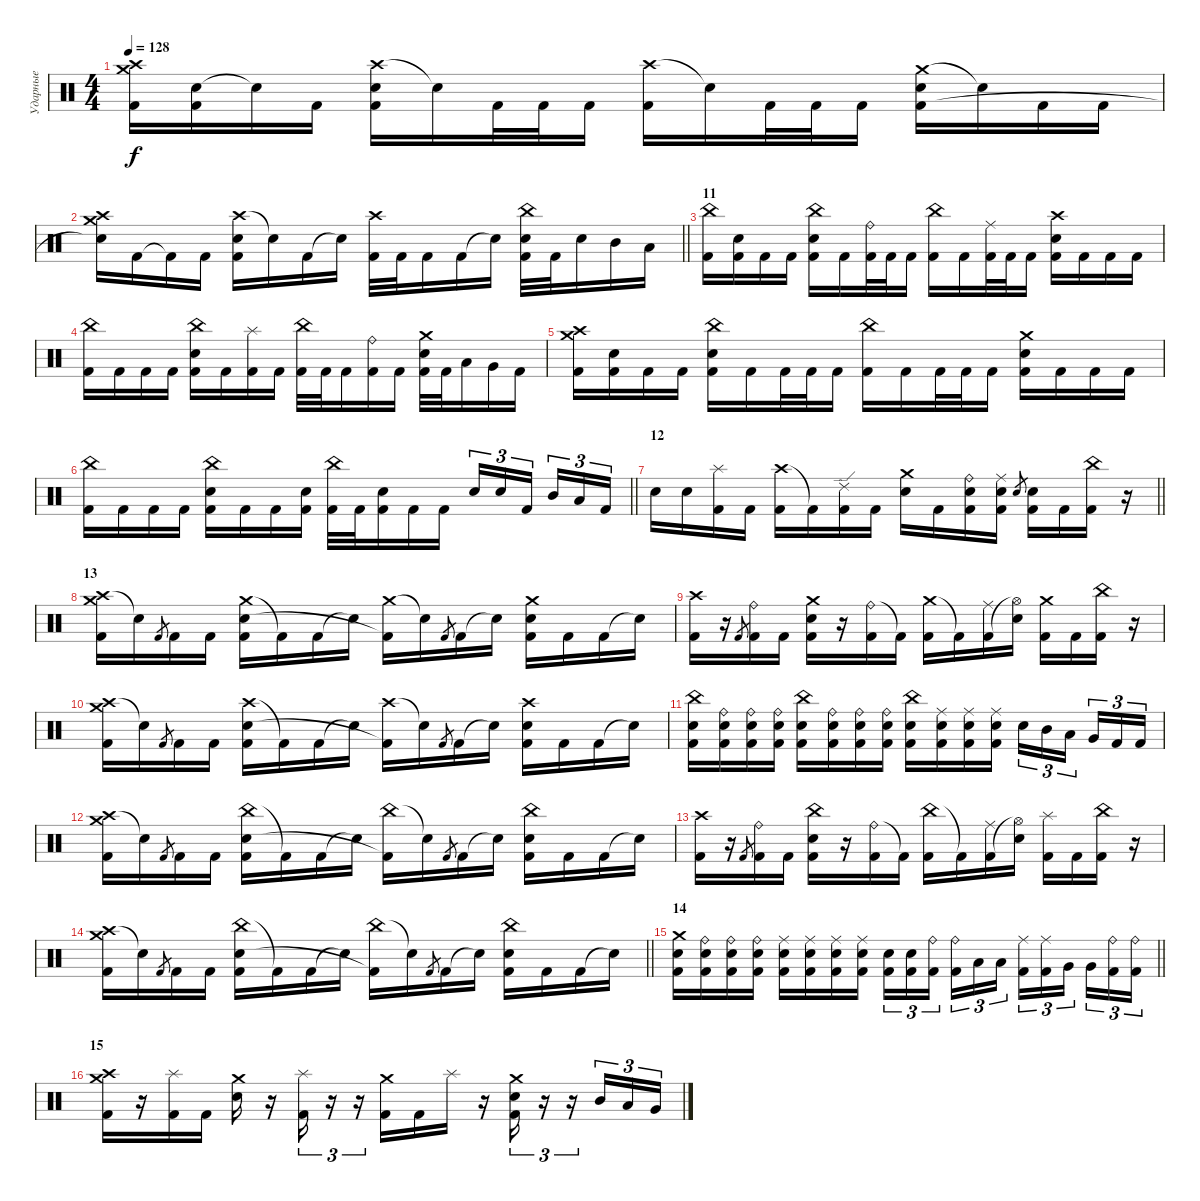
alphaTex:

\track ("Ударные" "Ударные") {instrument percussion}
\staff {score}
\articulation defaults
\ts (4 4)
\tempo 128
\clef neutral
\ks c
("Crash high (hit)" "Crash medium (hit)" "Kick (hit) 2").16{dy f} ("Electric Snare (hit)" "Kick (hit) 2").16 "Snare (hit)"{t}.16 "Kick (hit) 2".16 ("Crash high (hit)" "Electric Snare (hit)" "Kick (hit) 2").16 "Snare (hit)"{t}.16 "Kick (hit) 2".32 "Kick (hit) 2".32 "Kick (hit) 2".16 ("Crash high (hit)" "Kick (hit) 2").16 "Snare (hit)"{t}.16 "Kick (hit) 2".32 "Kick (hit) 2".32 "Kick (hit) 2".16 ("Crash medium (hit)" "Electric Snare (hit)" "Kick (hit) 2").16 "Snare (hit)"{t}.16 "Kick (hit) 2".16 "Kick (hit) 2".16 |
\barLineRight lightlight
("Crash high (hit)" "Crash medium (hit)" "Snare (hit)"{t}).16 "Kick (hit) 2".16 "Kick (hit) 2"{t}.16 "Kick (hit) 2".16 ("Crash high (hit)" "Electric Snare (hit)" "Kick (hit) 2").16 "Snare (hit)"{t}.16 "Kick (hit) 2".16 "Snare (hit)"{t}.16 ("Crash high (hit)" "Kick (hit) 2").32 "Kick (hit) 2".32 "Kick (hit) 2".16 "Kick (hit) 2".16 "Snare (hit)"{t}.16 ("China (hit)" "Electric Snare (hit)" "Kick (hit) 2").32 "Kick (hit) 2".32 "Electric Snare (hit)".16 "Mid Tom (hit)".16 "Low Tom (hit)".16 |
\section ("" "11")
("China (hit)" "Kick (hit) 2").16 ("Electric Snare (hit)" "Kick (hit) 2").16 "Kick (hit) 2".16 "Kick (hit) 2".16 ("China (hit)" "Electric Snare (hit)" "Kick (hit) 2").16 "Kick (hit) 2".16 ("Ride (bell)" "Kick (hit) 2").32 "Kick (hit) 2".32 "Kick (hit) 2".16 ("China (hit)" "Kick (hit) 2").16 "Kick (hit) 2".16 ("Ride (middle)" "Kick (hit) 2").32 "Kick (hit) 2".32 "Kick (hit) 2".16 ("Crash high (hit)" "Electric Snare (hit)" "Kick (hit) 2").16 "Kick (hit) 2".16 "Kick (hit) 2".16 "Kick (hit) 2".16 |
("China (hit)" "Kick (hit) 2").16 "Kick (hit) 2".16 "Kick (hit) 2".16 "Kick (hit) 2".16 ("China (hit)" "Electric Snare (hit)" "Kick (hit) 2").16 "Kick (hit) 2".16 ("Splash (hit)" "Kick (hit) 2").16 "Kick (hit) 2".16 ("China (hit)" "Kick (hit) 2").32 "Kick (hit) 2".32 "Kick (hit) 2".16 ("Ride (bell)" "Kick (hit) 2").16 "Kick (hit) 2".16 ("Crash medium (hit)" "Electric Snare (hit)" "Kick (hit) 2").32 "Kick (hit) 2".32 "Low Tom (hit)".16 "Very Low Tom (hit)".16 "Kick (hit) 2".16 |
("Crash high (hit)" "Crash medium (hit)" "Kick (hit) 2").16 ("Electric Snare (hit)" "Kick (hit) 2").16 "Kick (hit) 2".16 "Kick (hit) 2".16 ("China (hit)" "Electric Snare (hit)" "Kick (hit) 2").16 "Kick (hit) 2".16 "Kick (hit) 2".32 "Kick (hit) 2".32 "Kick (hit) 2".16 ("China (hit)" "Kick (hit) 2").16 "Kick (hit) 2".16 "Kick (hit) 2".32 "Kick (hit) 2".32 "Kick (hit) 2".16 ("Crash medium (hit)" "Electric Snare (hit)" "Kick (hit) 2").16 "Kick (hit) 2".16 "Kick (hit) 2".16 "Kick (hit) 2".16 |
\barLineRight lightlight
("China (hit)" "Kick (hit) 2").16 "Kick (hit) 2".16 "Kick (hit) 2".16 "Kick (hit) 2".16 ("China (hit)" "Electric Snare (hit)" "Kick (hit) 2").16 "Kick (hit) 2".16 "Kick (hit) 2".16 ("Electric Snare (hit)" "Kick (hit) 2").16 ("China (hit)" "Kick (hit) 2").32 "Kick (hit) 2".32 ("Electric Snare (hit)" "Kick (hit) 2").16 "Kick (hit) 2".16 "Kick (hit) 2".16 "Electric Snare (hit)".16{tu (3 2)} "Electric Snare (hit)".16{tu (3 2)} "Kick (hit) 2".16{tu (3 2) beam splitsecondary} "Mid Tom (hit)".16{tu (3 2)} "Low Tom (hit)".16{tu (3 2)} "Kick (hit) 2".16{tu (3 2)} |
\section ("" "12")
\barLineRight lightlight "Electric Snare (hit)".16 "Electric Snare (hit)".16
("Splash (hit)" "Kick (hit) 2").16 "Kick (hit) 2".16 ("Crash high (hit)" "Kick (hit) 2").16 "Kick (hit) 2"{t}.16 ("Ride (edge) 2" "Kick (hit) 2").16 "Kick (hit) 2".16 ("Crash medium (hit)" "Electric Snare (hit)").16 "Kick (hit) 2".16 ("Ride (bell)" "Electric Snare (hit)" "Kick (hit) 2").16 ("Ride (middle)" "Electric Snare (hit)" "Kick (hit) 2").16 "Electric Snare (hit)".8{gr} ("Electric Snare (hit)" "Kick (hit) 2").16 "Kick (hit) 2".16 ("China (hit)" "Kick (hit) 2").16 r.16 |
\section ("" "13")
("Crash high (hit)" "Crash medium (hit)" "Kick (hit) 2").16 "Snare (hit)"{t}.16 "Kick (hit) 2".8{gr} "Kick (hit) 2".16 "Kick (hit) 2".16 ("Crash medium (hit)" "Electric Snare (hit)" "Kick (hit) 2").16 "Kick (hit) 2"{t}.16 "Kick (hit) 2".16 "Snare (hit)"{t}.16 ("Crash medium (hit)" "Kick (hit) 2"{t}).16 "Snare (hit)"{t}.16 "Kick (hit) 2".8{gr} "Kick (hit) 2".16 "Snare (hit)"{t}.16 ("Crash medium (hit)" "Electric Snare (hit)" "Kick (hit) 2").16 "Kick (hit) 2".16 "Kick (hit) 2".16 "Snare (hit)"{t}.16 |
("Crash high (hit)" "Kick (hit) 2").16 r.16 "Kick (hit) 2".8{gr} ("Ride (bell)" "Kick (hit) 2").16 "Kick (hit) 2".16 ("Crash medium (hit)" "Electric Snare (hit)" "Kick (hit) 2").16 r.16 ("Ride (bell)" "Kick (hit) 2").16 "Kick (hit) 2"{t}.16 ("Crash medium (hit)" "Kick (hit) 2").16 "Kick (hit) 2"{t}.16 ("Ride (middle)" "Kick (hit) 2").16 ("Electric Snare (hit)" "Hi-Hat (open)"{t}).16 ("Crash medium (hit)" "Kick (hit) 2").16 "Kick (hit) 2".16 ("China (hit)" "Kick (hit) 2").16 r.16 |
("Crash high (hit)" "Crash medium (hit)" "Kick (hit) 2").16 "Snare (hit)"{t}.16 "Kick (hit) 2".8{gr} "Kick (hit) 2".16 "Kick (hit) 2".16 ("Crash high (hit)" "Electric Snare (hit)" "Kick (hit) 2").16 "Kick (hit) 2"{t}.16 "Kick (hit) 2".16 "Snare (hit)"{t}.16 ("Crash high (hit)" "Kick (hit) 2"{t}).16 "Snare (hit)"{t}.16 "Kick (hit) 2".8{gr} "Kick (hit) 2".16 "Snare (hit)"{t}.16 ("Crash high (hit)" "Electric Snare (hit)" "Kick (hit) 2").16 "Kick (hit) 2".16 "Kick (hit) 2".16 "Snare (hit)"{t}.16 |
("China (hit)" "Electric Snare (hit)" "Kick (hit) 2").16 ("Ride (bell)" "Electric Snare (hit)" "Kick (hit) 2").16 ("Ride (bell)" "Electric Snare (hit)" "Kick (hit) 2").16 ("Ride (bell)" "Electric Snare (hit)" "Kick (hit) 2").16 ("China (hit)" "Electric Snare (hit)" "Kick (hit) 2").16 ("Ride (bell)" "Electric Snare (hit)" "Kick (hit) 2").16 ("Ride (bell)" "Electric Snare (hit)" "Kick (hit) 2").16 ("Ride (bell)" "Electric Snare (hit)" "Kick (hit) 2").16 ("China (hit)" "Electric Snare (hit)" "Kick (hit) 2").16 ("Ride (middle)" "Electric Snare (hit)" "Kick (hit) 2").16 ("Ride (middle)" "Electric Snare (hit)" "Kick (hit) 2").16 ("Ride (middle)" "Electric Snare (hit)" "Kick (hit) 2").16 "Electric Snare (hit)".16{tu (3 2)} "Mid Tom (hit)".16{tu (3 2)} "Low Tom (hit)".16{tu (3 2) beam splitsecondary} "Very Low Tom (hit)".16{tu (3 2)} "Kick (hit) 2".16{tu (3 2)} "Kick (hit) 2".16{tu (3 2)} |
("Crash high (hit)" "Crash medium (hit)" "Kick (hit) 2").16 "Snare (hit)"{t}.16 "Kick (hit) 2".8{gr} "Kick (hit) 2".16 "Kick (hit) 2".16 ("China (hit)" "Electric Snare (hit)" "Kick (hit) 2").16 "Kick (hit) 2"{t}.16 "Kick (hit) 2".16 "Snare (hit)"{t}.16 ("China (hit)" "Kick (hit) 2"{t}).16 "Snare (hit)"{t}.16 "Kick (hit) 2".8{gr} "Kick (hit) 2".16 "Snare (hit)"{t}.16 ("China (hit)" "Electric Snare (hit)" "Kick (hit) 2").16 "Kick (hit) 2".16 "Kick (hit) 2".16 "Snare (hit)"{t}.16 |
("Crash high (hit)" "Kick (hit) 2").16 r.16 "Kick (hit) 2".8{gr} ("Ride (bell)" "Kick (hit) 2").16 "Kick (hit) 2".16 ("China (hit)" "Electric Snare (hit)" "Kick (hit) 2").16 r.16 ("Ride (bell)" "Kick (hit) 2").16 "Kick (hit) 2"{t}.16 ("China (hit)" "Kick (hit) 2").16 "Kick (hit) 2"{t}.16 ("Ride (middle)" "Kick (hit) 2").16 ("Electric Snare (hit)" "Hi-Hat (open)"{t}).16 ("Splash (hit)" "Kick (hit) 2").16 "Kick (hit) 2".16 ("China (hit)" "Kick (hit) 2").16 r.16 |
\barLineRight lightlight
("Crash high (hit)" "Crash medium (hit)" "Kick (hit) 2").16 "Snare (hit)"{t}.16 "Kick (hit) 2".8{gr} "Kick (hit) 2".16 "Kick (hit) 2".16 ("China (hit)" "Electric Snare (hit)" "Kick (hit) 2").16 "Kick (hit) 2"{t}.16 "Kick (hit) 2".16 "Snare (hit)"{t}.16 ("China (hit)" "Kick (hit) 2"{t}).16 "Snare (hit)"{t}.16 "Kick (hit) 2".8{gr} "Kick (hit) 2".16 "Snare (hit)"{t}.16 ("China (hit)" "Electric Snare (hit)" "Kick (hit) 2").16 "Kick (hit) 2".16 "Kick (hit) 2".16 "Snare (hit)"{t}.16 |
\section ("" "14")
\barLineRight lightlight
("Crash medium (hit)" "Electric Snare (hit)" "Kick (hit) 2").16 ("Ride (bell)" "Electric Snare (hit)" "Kick (hit) 2").16 ("Ride (bell)" "Electric Snare (hit)" "Kick (hit) 2").16 ("Ride (bell)" "Electric Snare (hit)" "Kick (hit) 2").16 ("Ride (middle)" "Electric Snare (hit)" "Kick (hit) 2").16 ("Ride (middle)" "Electric Snare (hit)" "Kick (hit) 2").16 ("Ride (middle)" "Electric Snare (hit)" "Kick (hit) 2").16 ("Ride (middle)" "Electric Snare (hit)" "Kick (hit) 2").16 ("Electric Snare (hit)" "Kick (hit) 2").16{tu (3 2)} ("Electric Snare (hit)" "Kick (hit) 2").16{tu (3 2)} ("Ride (bell)" "Kick (hit) 2").16{tu (3 2) beam splitsecondary} ("Ride (bell)" "Kick (hit) 2").16{tu (3 2)} "Low Tom (hit)".16{tu (3 2)} "Low Tom (hit)".16{tu (3 2)} ("Ride (middle)" "Kick (hit) 2").16{tu (3 2)} ("Ride (middle)" "Kick (hit) 2").16{tu (3 2)} "Very Low Tom (hit)".16{tu (3 2) beam splitsecondary} "Very Low Tom (hit)".16{tu (3 2)} ("Ride (bell)" "Kick (hit) 2").16{tu (3 2)} ("Ride (bell)" "Kick (hit) 2").16{tu (3 2)} |
\section ("" "15")
("Crash high (hit)" "Crash medium (hit)" "Kick (hit) 2").16 r.16 ("Splash (hit)" "Kick (hit) 2").16 "Kick (hit) 2".16 ("Crash medium (hit)" "Electric Snare (hit)").16 r.16 ("Splash (hit)" "Kick (hit) 2").16{tu (3 2)} r.16{tu (3 2)} r.16{tu (3 2)} ("Crash medium (hit)" "Kick (hit) 2").16 "Kick (hit) 2".16 "Splash (hit)".16 r.16 ("Crash medium (hit)" "Electric Snare (hit)" "Kick (hit) 2").16{tu (3 2)} r.16{tu (3 2)} r.16{tu (3 2)} "Mid Tom (hit)".16{tu (3 2)} "Low Tom (hit)".16{tu (3 2)} "Very Low Tom (hit)".16{tu (3 2)}
